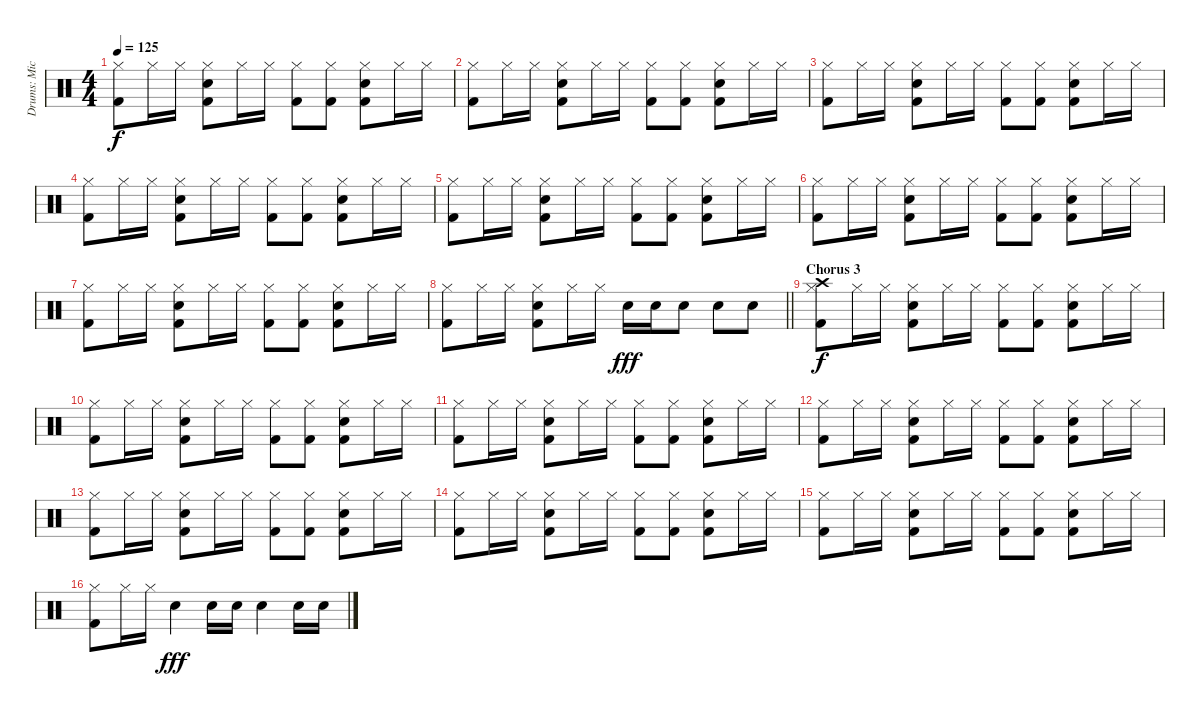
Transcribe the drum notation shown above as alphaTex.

\track ("Drums: Mick Fleetwood" "Drums: Mic") {instrument percussion}
\staff {score}
\articulation defaults
\ts (4 4)
\tempo 125
\clef neutral
\ks c
("Hi-Hat (closed)" "Kick (hit) 2").8{dy f} "Hi-Hat (closed)".16 "Hi-Hat (closed)".16 ("Hi-Hat (closed)" "Snare (hit) 2" "Kick (hit) 2").8 "Hi-Hat (closed)".16 "Hi-Hat (closed)".16 ("Hi-Hat (closed)" "Kick (hit) 2").8 ("Hi-Hat (closed)" "Kick (hit) 2").8 ("Hi-Hat (closed)" "Snare (hit) 2" "Kick (hit) 2").8 "Hi-Hat (closed)".16 "Hi-Hat (closed)".16 |
("Hi-Hat (closed)" "Kick (hit) 2").8 "Hi-Hat (closed)".16 "Hi-Hat (closed)".16 ("Hi-Hat (closed)" "Snare (hit) 2" "Kick (hit) 2").8 "Hi-Hat (closed)".16 "Hi-Hat (closed)".16 ("Hi-Hat (closed)" "Kick (hit) 2").8 ("Hi-Hat (closed)" "Kick (hit) 2").8 ("Hi-Hat (closed)" "Snare (hit) 2" "Kick (hit) 2").8 "Hi-Hat (closed)".16 "Hi-Hat (closed)".16 |
("Hi-Hat (closed)" "Kick (hit) 2").8 "Hi-Hat (closed)".16 "Hi-Hat (closed)".16 ("Hi-Hat (closed)" "Snare (hit) 2" "Kick (hit) 2").8 "Hi-Hat (closed)".16 "Hi-Hat (closed)".16 ("Hi-Hat (closed)" "Kick (hit) 2").8 ("Hi-Hat (closed)" "Kick (hit) 2").8 ("Hi-Hat (closed)" "Snare (hit) 2" "Kick (hit) 2").8 "Hi-Hat (closed)".16 "Hi-Hat (closed)".16 |
("Hi-Hat (closed)" "Kick (hit) 2").8 "Hi-Hat (closed)".16 "Hi-Hat (closed)".16 ("Hi-Hat (closed)" "Snare (hit) 2" "Kick (hit) 2").8 "Hi-Hat (closed)".16 "Hi-Hat (closed)".16 ("Hi-Hat (closed)" "Kick (hit) 2").8 ("Hi-Hat (closed)" "Kick (hit) 2").8 ("Hi-Hat (closed)" "Snare (hit) 2" "Kick (hit) 2").8 "Hi-Hat (closed)".16 "Hi-Hat (closed)".16 |
("Hi-Hat (closed)" "Kick (hit) 2").8 "Hi-Hat (closed)".16 "Hi-Hat (closed)".16 ("Hi-Hat (closed)" "Snare (hit) 2" "Kick (hit) 2").8 "Hi-Hat (closed)".16 "Hi-Hat (closed)".16 ("Hi-Hat (closed)" "Kick (hit) 2").8 ("Hi-Hat (closed)" "Kick (hit) 2").8 ("Hi-Hat (closed)" "Snare (hit) 2" "Kick (hit) 2").8 "Hi-Hat (closed)".16 "Hi-Hat (closed)".16 |
("Hi-Hat (closed)" "Kick (hit) 2").8 "Hi-Hat (closed)".16 "Hi-Hat (closed)".16 ("Hi-Hat (closed)" "Snare (hit) 2" "Kick (hit) 2").8 "Hi-Hat (closed)".16 "Hi-Hat (closed)".16 ("Hi-Hat (closed)" "Kick (hit) 2").8 ("Hi-Hat (closed)" "Kick (hit) 2").8 ("Hi-Hat (closed)" "Snare (hit) 2" "Kick (hit) 2").8 "Hi-Hat (closed)".16 "Hi-Hat (closed)".16 |
("Hi-Hat (closed)" "Kick (hit) 2").8 "Hi-Hat (closed)".16 "Hi-Hat (closed)".16 ("Hi-Hat (closed)" "Snare (hit) 2" "Kick (hit) 2").8 "Hi-Hat (closed)".16 "Hi-Hat (closed)".16 ("Hi-Hat (closed)" "Kick (hit) 2").8 ("Hi-Hat (closed)" "Kick (hit) 2").8 ("Hi-Hat (closed)" "Snare (hit) 2" "Kick (hit) 2").8 "Hi-Hat (closed)".16 "Hi-Hat (closed)".16 |
\barLineRight lightlight
("Hi-Hat (closed)" "Kick (hit) 2").8 "Hi-Hat (closed)".16 "Hi-Hat (closed)".16 ("Hi-Hat (closed)" "Snare (hit) 2" "Kick (hit) 2").8 "Hi-Hat (closed)".16 "Hi-Hat (closed)".16 "Snare (hit) 2".16{dy fff} "Snare (hit) 2".16 "Snare (hit) 2".8 "Snare (hit) 2".8 "Snare (hit) 2".8 |
\section ("" "Chorus 3")
("Crash high (hit)" "Hi-Hat (closed)" "Kick (hit) 2").8{dy f} "Hi-Hat (closed)".16 "Hi-Hat (closed)".16 ("Hi-Hat (closed)" "Snare (hit) 2" "Kick (hit) 2").8 "Hi-Hat (closed)".16 "Hi-Hat (closed)".16 ("Hi-Hat (closed)" "Kick (hit) 2").8 ("Hi-Hat (closed)" "Kick (hit) 2").8 ("Hi-Hat (closed)" "Snare (hit) 2" "Kick (hit) 2").8 "Hi-Hat (closed)".16 "Hi-Hat (closed)".16 |
("Hi-Hat (closed)" "Kick (hit) 2").8 "Hi-Hat (closed)".16 "Hi-Hat (closed)".16 ("Hi-Hat (closed)" "Snare (hit) 2" "Kick (hit) 2").8 "Hi-Hat (closed)".16 "Hi-Hat (closed)".16 ("Hi-Hat (closed)" "Kick (hit) 2").8 ("Hi-Hat (closed)" "Kick (hit) 2").8 ("Hi-Hat (closed)" "Snare (hit) 2" "Kick (hit) 2").8 "Hi-Hat (closed)".16 "Hi-Hat (closed)".16 |
("Hi-Hat (closed)" "Kick (hit) 2").8 "Hi-Hat (closed)".16 "Hi-Hat (closed)".16 ("Hi-Hat (closed)" "Snare (hit) 2" "Kick (hit) 2").8 "Hi-Hat (closed)".16 "Hi-Hat (closed)".16 ("Hi-Hat (closed)" "Kick (hit) 2").8 ("Hi-Hat (closed)" "Kick (hit) 2").8 ("Hi-Hat (closed)" "Snare (hit) 2" "Kick (hit) 2").8 "Hi-Hat (closed)".16 "Hi-Hat (closed)".16 |
("Hi-Hat (closed)" "Kick (hit) 2").8 "Hi-Hat (closed)".16 "Hi-Hat (closed)".16 ("Hi-Hat (closed)" "Snare (hit) 2" "Kick (hit) 2").8 "Hi-Hat (closed)".16 "Hi-Hat (closed)".16 ("Hi-Hat (closed)" "Kick (hit) 2").8 ("Hi-Hat (closed)" "Kick (hit) 2").8 ("Hi-Hat (closed)" "Snare (hit) 2" "Kick (hit) 2").8 "Hi-Hat (closed)".16 "Hi-Hat (closed)".16 |
("Hi-Hat (closed)" "Kick (hit) 2").8 "Hi-Hat (closed)".16 "Hi-Hat (closed)".16 ("Hi-Hat (closed)" "Snare (hit) 2" "Kick (hit) 2").8 "Hi-Hat (closed)".16 "Hi-Hat (closed)".16 ("Hi-Hat (closed)" "Kick (hit) 2").8 ("Hi-Hat (closed)" "Kick (hit) 2").8 ("Hi-Hat (closed)" "Snare (hit) 2" "Kick (hit) 2").8 "Hi-Hat (closed)".16 "Hi-Hat (closed)".16 |
("Hi-Hat (closed)" "Kick (hit) 2").8 "Hi-Hat (closed)".16 "Hi-Hat (closed)".16 ("Hi-Hat (closed)" "Snare (hit) 2" "Kick (hit) 2").8 "Hi-Hat (closed)".16 "Hi-Hat (closed)".16 ("Hi-Hat (closed)" "Kick (hit) 2").8 ("Hi-Hat (closed)" "Kick (hit) 2").8 ("Hi-Hat (closed)" "Snare (hit) 2" "Kick (hit) 2").8 "Hi-Hat (closed)".16 "Hi-Hat (closed)".16 |
("Hi-Hat (closed)" "Kick (hit) 2").8 "Hi-Hat (closed)".16 "Hi-Hat (closed)".16 ("Hi-Hat (closed)" "Snare (hit) 2" "Kick (hit) 2").8 "Hi-Hat (closed)".16 "Hi-Hat (closed)".16 ("Hi-Hat (closed)" "Kick (hit) 2").8 ("Hi-Hat (closed)" "Kick (hit) 2").8 ("Hi-Hat (closed)" "Snare (hit) 2" "Kick (hit) 2").8 "Hi-Hat (closed)".16 "Hi-Hat (closed)".16 |
("Hi-Hat (closed)" "Kick (hit) 2").8 "Hi-Hat (closed)".16 "Hi-Hat (closed)".16 "Snare (hit) 2".4{dy fff} "Snare (hit) 2".16 "Snare (hit) 2".16 "Snare (hit) 2".4 "Snare (hit) 2".16 "Snare (hit) 2".16
